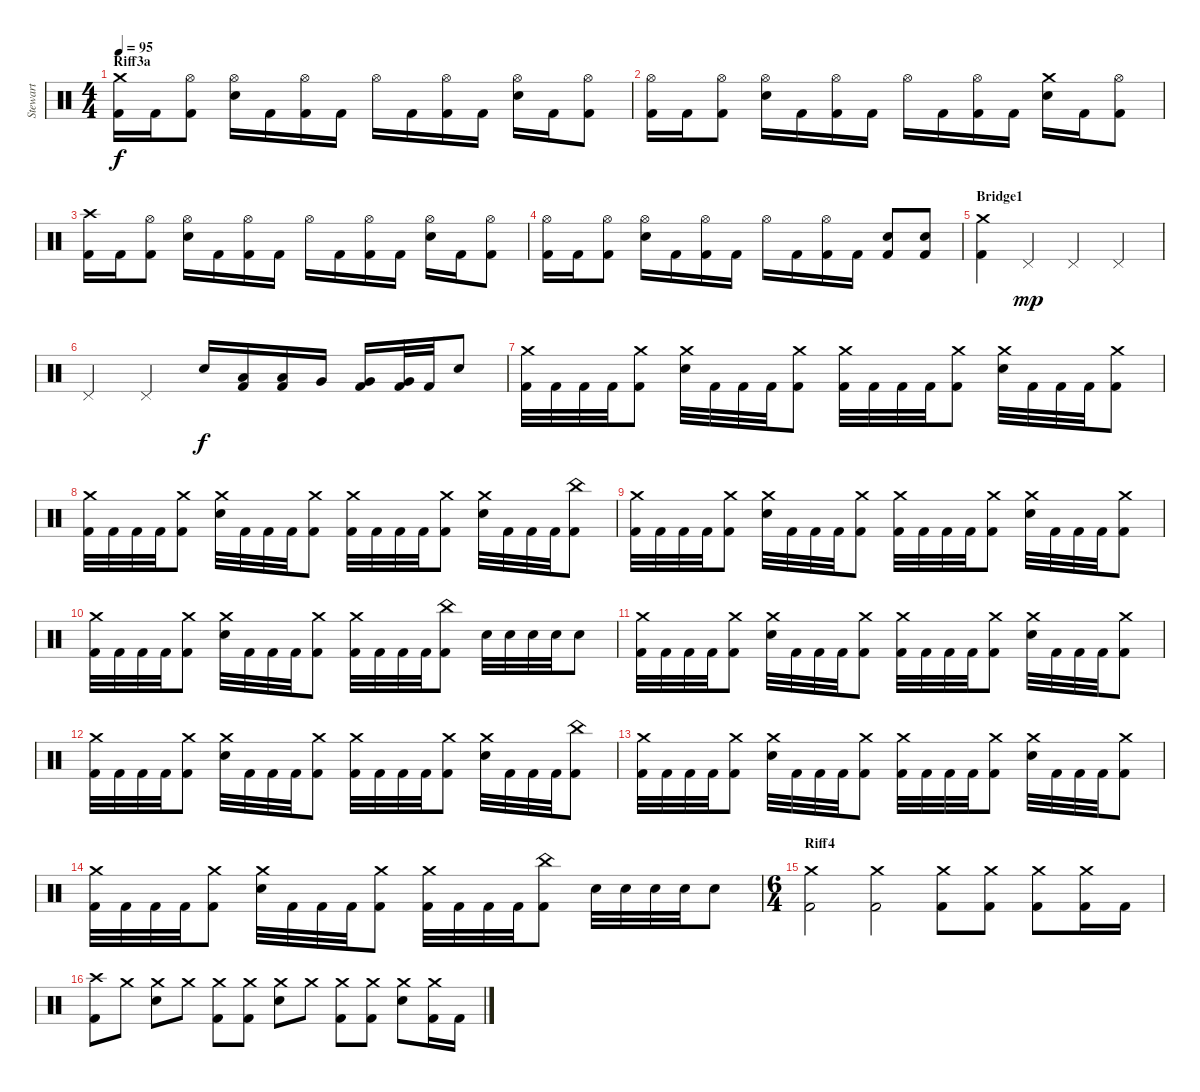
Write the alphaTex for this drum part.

\track ("Stewart" "Stewart") {instrument percussion}
\staff {score}
\articulation defaults
\ts (4 4)
\section ("" "Riff3a")
\tempo 95
\clef neutral
\ks c
("Crash medium (hit)" "Kick (hit) 2").16{dy f} "Kick (hit) 2".16 ("Hi-Hat (open)" "Kick (hit) 2").8 ("Hi-Hat (open)" "Electric Snare (hit)").16 "Kick (hit) 2".16 ("Hi-Hat (open)" "Kick (hit) 2").16 "Kick (hit) 2".16 "Hi-Hat (open)".16 "Kick (hit) 2".16 ("Hi-Hat (open)" "Kick (hit) 2").16 "Kick (hit) 2".16 ("Hi-Hat (open)" "Electric Snare (hit)").16 "Kick (hit) 2".16 ("Hi-Hat (open)" "Kick (hit) 2").8 |
("Hi-Hat (open)" "Kick (hit) 2").16 "Kick (hit) 2".16 ("Hi-Hat (open)" "Kick (hit) 2").8 ("Hi-Hat (open)" "Electric Snare (hit)").16 "Kick (hit) 2".16 ("Hi-Hat (open)" "Kick (hit) 2").16 "Kick (hit) 2".16 "Hi-Hat (open)".16 "Kick (hit) 2".16 ("Hi-Hat (open)" "Kick (hit) 2").16 "Kick (hit) 2".16 ("Crash medium (hit)" "Electric Snare (hit)").16 "Kick (hit) 2".16 ("Hi-Hat (open)" "Kick (hit) 2").8 |
("Crash high (hit)" "Kick (hit) 2").16 "Kick (hit) 2".16 ("Hi-Hat (open)" "Kick (hit) 2").8 ("Hi-Hat (open)" "Electric Snare (hit)").16 "Kick (hit) 2".16 ("Hi-Hat (open)" "Kick (hit) 2").16 "Kick (hit) 2".16 "Hi-Hat (open)".16 "Kick (hit) 2".16 ("Hi-Hat (open)" "Kick (hit) 2").16 "Kick (hit) 2".16 ("Hi-Hat (open)" "Electric Snare (hit)").16 "Kick (hit) 2".16 ("Hi-Hat (open)" "Kick (hit) 2").8 |
("Hi-Hat (open)" "Kick (hit) 2").16 "Kick (hit) 2".16 ("Hi-Hat (open)" "Kick (hit) 2").8 ("Hi-Hat (open)" "Electric Snare (hit)").16 "Kick (hit) 2".16 ("Hi-Hat (open)" "Kick (hit) 2").16 "Kick (hit) 2".16 "Hi-Hat (open)".16 "Kick (hit) 2".16 ("Hi-Hat (open)" "Kick (hit) 2").16 "Kick (hit) 2".16 ("Electric Snare (hit)" "Kick (hit) 2").8 ("Electric Snare (hit)" "Kick (hit) 2").8 |
\section ("" "Bridge1")
("Crash medium (hit)" "Kick (hit) 2").4 "Pedal Hi-Hat (hit)".4{dy mp} "Pedal Hi-Hat (hit)".4 "Pedal Hi-Hat (hit)".4 |
"Pedal Hi-Hat (hit)".4 "Pedal Hi-Hat (hit)".4 "Electric Snare (hit)".16{dy f} ("Low Tom (hit)" "Kick (hit) 2").16 ("Low Tom (hit)" "Kick (hit) 2").16 "Very Low Tom (hit)".16 ("Very Low Tom (hit)" "Kick (hit) 2").16 ("Very Low Tom (hit)" "Kick (hit) 2").32 "Kick (hit) 2".32 "Electric Snare (hit)".8 |
("Crash medium (hit)" "Kick (hit) 2").32 "Kick (hit) 2".32 "Kick (hit) 2".32 "Kick (hit) 2".32 ("Crash medium (hit)" "Kick (hit) 2").8 ("Crash medium (hit)" "Electric Snare (hit)").32 "Kick (hit) 2".32 "Kick (hit) 2".32 "Kick (hit) 2".32 ("Crash medium (hit)" "Kick (hit) 2").8 ("Crash medium (hit)" "Kick (hit) 2").32 "Kick (hit) 2".32 "Kick (hit) 2".32 "Kick (hit) 2".32 ("Crash medium (hit)" "Kick (hit) 2").8 ("Crash medium (hit)" "Electric Snare (hit)").32 "Kick (hit) 2".32 "Kick (hit) 2".32 "Kick (hit) 2".32 ("Crash medium (hit)" "Kick (hit) 2").8 |
("Crash medium (hit)" "Kick (hit) 2").32 "Kick (hit) 2".32 "Kick (hit) 2".32 "Kick (hit) 2".32 ("Crash medium (hit)" "Kick (hit) 2").8 ("Crash medium (hit)" "Electric Snare (hit)").32 "Kick (hit) 2".32 "Kick (hit) 2".32 "Kick (hit) 2".32 ("Crash medium (hit)" "Kick (hit) 2").8 ("Crash medium (hit)" "Kick (hit) 2").32 "Kick (hit) 2".32 "Kick (hit) 2".32 "Kick (hit) 2".32 ("Crash medium (hit)" "Kick (hit) 2").8 ("Crash medium (hit)" "Electric Snare (hit)").32 "Kick (hit) 2".32 "Kick (hit) 2".32 "Kick (hit) 2".32 ("China (hit)" "Kick (hit) 2").8 |
("Crash medium (hit)" "Kick (hit) 2").32 "Kick (hit) 2".32 "Kick (hit) 2".32 "Kick (hit) 2".32 ("Crash medium (hit)" "Kick (hit) 2").8 ("Crash medium (hit)" "Electric Snare (hit)").32 "Kick (hit) 2".32 "Kick (hit) 2".32 "Kick (hit) 2".32 ("Crash medium (hit)" "Kick (hit) 2").8 ("Crash medium (hit)" "Kick (hit) 2").32 "Kick (hit) 2".32 "Kick (hit) 2".32 "Kick (hit) 2".32 ("Crash medium (hit)" "Kick (hit) 2").8 ("Crash medium (hit)" "Electric Snare (hit)").32 "Kick (hit) 2".32 "Kick (hit) 2".32 "Kick (hit) 2".32 ("Crash medium (hit)" "Kick (hit) 2").8 |
("Crash medium (hit)" "Kick (hit) 2").32 "Kick (hit) 2".32 "Kick (hit) 2".32 "Kick (hit) 2".32 ("Crash medium (hit)" "Kick (hit) 2").8 ("Crash medium (hit)" "Electric Snare (hit)").32 "Kick (hit) 2".32 "Kick (hit) 2".32 "Kick (hit) 2".32 ("Crash medium (hit)" "Kick (hit) 2").8 ("Crash medium (hit)" "Kick (hit) 2").32 "Kick (hit) 2".32 "Kick (hit) 2".32 "Kick (hit) 2".32 ("China (hit)" "Kick (hit) 2").8 "Electric Snare (hit)".32 "Electric Snare (hit)".32 "Electric Snare (hit)".32 "Electric Snare (hit)".32 "Electric Snare (hit)".8 |
("Crash medium (hit)" "Kick (hit) 2").32 "Kick (hit) 2".32 "Kick (hit) 2".32 "Kick (hit) 2".32 ("Crash medium (hit)" "Kick (hit) 2").8 ("Crash medium (hit)" "Electric Snare (hit)").32 "Kick (hit) 2".32 "Kick (hit) 2".32 "Kick (hit) 2".32 ("Crash medium (hit)" "Kick (hit) 2").8 ("Crash medium (hit)" "Kick (hit) 2").32 "Kick (hit) 2".32 "Kick (hit) 2".32 "Kick (hit) 2".32 ("Crash medium (hit)" "Kick (hit) 2").8 ("Crash medium (hit)" "Electric Snare (hit)").32 "Kick (hit) 2".32 "Kick (hit) 2".32 "Kick (hit) 2".32 ("Crash medium (hit)" "Kick (hit) 2").8 |
("Crash medium (hit)" "Kick (hit) 2").32 "Kick (hit) 2".32 "Kick (hit) 2".32 "Kick (hit) 2".32 ("Crash medium (hit)" "Kick (hit) 2").8 ("Crash medium (hit)" "Electric Snare (hit)").32 "Kick (hit) 2".32 "Kick (hit) 2".32 "Kick (hit) 2".32 ("Crash medium (hit)" "Kick (hit) 2").8 ("Crash medium (hit)" "Kick (hit) 2").32 "Kick (hit) 2".32 "Kick (hit) 2".32 "Kick (hit) 2".32 ("Crash medium (hit)" "Kick (hit) 2").8 ("Crash medium (hit)" "Electric Snare (hit)").32 "Kick (hit) 2".32 "Kick (hit) 2".32 "Kick (hit) 2".32 ("China (hit)" "Kick (hit) 2").8 |
("Crash medium (hit)" "Kick (hit) 2").32 "Kick (hit) 2".32 "Kick (hit) 2".32 "Kick (hit) 2".32 ("Crash medium (hit)" "Kick (hit) 2").8 ("Crash medium (hit)" "Electric Snare (hit)").32 "Kick (hit) 2".32 "Kick (hit) 2".32 "Kick (hit) 2".32 ("Crash medium (hit)" "Kick (hit) 2").8 ("Crash medium (hit)" "Kick (hit) 2").32 "Kick (hit) 2".32 "Kick (hit) 2".32 "Kick (hit) 2".32 ("Crash medium (hit)" "Kick (hit) 2").8 ("Crash medium (hit)" "Electric Snare (hit)").32 "Kick (hit) 2".32 "Kick (hit) 2".32 "Kick (hit) 2".32 ("Crash medium (hit)" "Kick (hit) 2").8 |
("Crash medium (hit)" "Kick (hit) 2").32 "Kick (hit) 2".32 "Kick (hit) 2".32 "Kick (hit) 2".32 ("Crash medium (hit)" "Kick (hit) 2").8 ("Crash medium (hit)" "Electric Snare (hit)").32 "Kick (hit) 2".32 "Kick (hit) 2".32 "Kick (hit) 2".32 ("Crash medium (hit)" "Kick (hit) 2").8 ("Crash medium (hit)" "Kick (hit) 2").32 "Kick (hit) 2".32 "Kick (hit) 2".32 "Kick (hit) 2".32 ("China (hit)" "Kick (hit) 2").8 "Electric Snare (hit)".32 "Electric Snare (hit)".32 "Electric Snare (hit)".32 "Electric Snare (hit)".32 "Electric Snare (hit)".8 |
\ts (6 4)
\section ("" "Riff4")
("Crash medium (hit)" "Kick (hit) 2").2 ("Crash medium (hit)" "Kick (hit) 2").2 ("Crash medium (hit)" "Kick (hit) 2").8 ("Crash medium (hit)" "Kick (hit) 2").8 ("Crash medium (hit)" "Kick (hit) 2").8 ("Crash medium (hit)" "Kick (hit) 2").16 "Kick (hit) 2".16 |
("Crash high (hit)" "Kick (hit) 2").8 "Crash medium (hit)".8 ("Crash medium (hit)" "Electric Snare (hit)").8 "Crash medium (hit)".8 ("Crash medium (hit)" "Kick (hit) 2").8 ("Crash medium (hit)" "Kick (hit) 2").8 ("Crash medium (hit)" "Electric Snare (hit)").8 "Crash medium (hit)".8 ("Crash medium (hit)" "Kick (hit) 2").8 ("Crash medium (hit)" "Kick (hit) 2").8 ("Crash medium (hit)" "Electric Snare (hit)").8 ("Crash medium (hit)" "Kick (hit) 2").16 "Kick (hit) 2".16
